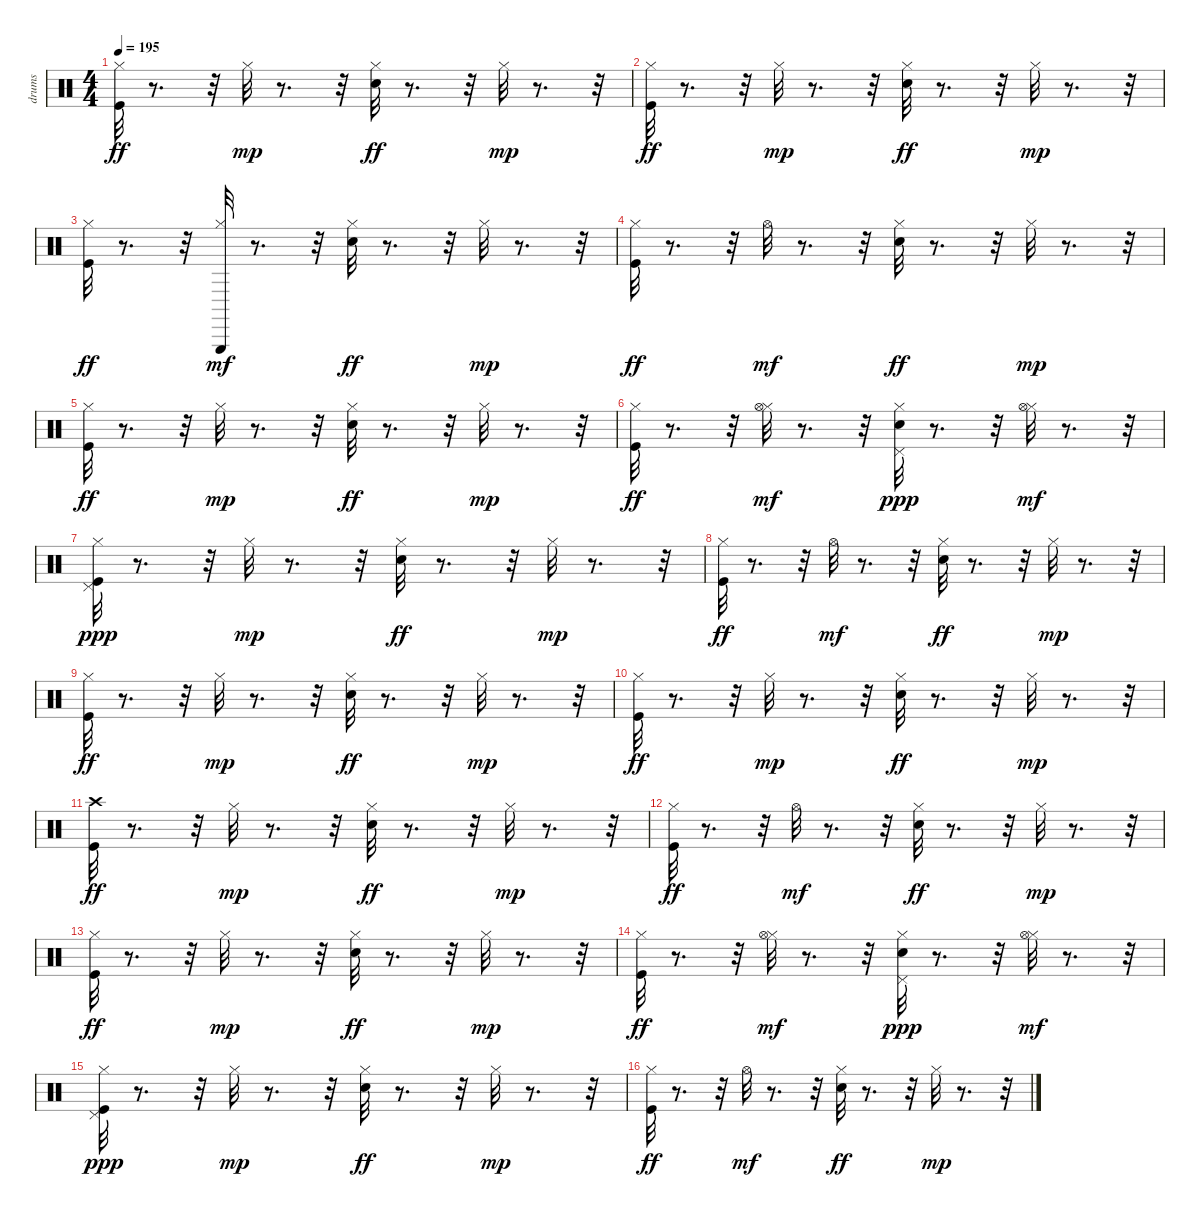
\track ("drums" "drums") {instrument percussion}
\staff {score}
\articulation defaults
\ts (4 4)
\tempo 195
\clef neutral
\ks c
("Hi-Hat (closed)" "Kick (hit)").32{dy ff} r.8{d} r.32 "Hi-Hat (closed)".32{dy mp} r.8{d} r.32 ("Snare (hit) 2" "Hi-Hat (closed)").32{dy ff} r.8{d} r.32 "Hi-Hat (closed)".32{dy mp} r.8{d} r.32 |
("Kick (hit)" "Hi-Hat (closed)").32{dy ff} r.8{d} r.32 "Hi-Hat (closed)".32{dy mp} r.8{d} r.32 ("Snare (hit) 2" "Hi-Hat (closed)").32{dy ff} r.8{d} r.32 "Hi-Hat (closed)".32{dy mp} r.8{d} r.32 |
("Hi-Hat (closed)" "Kick (hit)").32{dy ff} r.8{d} r.32 ("Hi-Hat (closed)" "Triangle (hit)").32{dy mf} r.8{d} r.32 ("Hi-Hat (closed)" "Snare (hit) 2").32{dy ff} r.8{d} r.32 "Hi-Hat (closed)".32{dy mp} r.8{d} r.32 |
("Kick (hit)" "Hi-Hat (closed)").32{dy ff} r.8{d} r.32 "Hi-Hat (open)".32{dy mf} r.8{d} r.32 ("Hi-Hat (closed)" "Snare (hit) 2").32{dy ff} r.8{d} r.32 "Hi-Hat (closed)".32{dy mp} r.8{d} r.32 |
("Hi-Hat (closed)" "Kick (hit)").32{dy ff} r.8{d} r.32 "Hi-Hat (closed)".32{dy mp} r.8{d} r.32 ("Hi-Hat (closed)" "Snare (hit) 2").32{dy ff} r.8{d} r.32 "Hi-Hat (closed)".32{dy mp} r.8{d} r.32 |
("Kick (hit)" "Hi-Hat (closed)").32{dy ff} r.8{d} r.32 ("Hi-Hat (closed)" "Hi-Hat (open)").32{dy mf} r.8{d} r.32 ("Snare (hit) 2" "Hi-Hat (closed)" "Pedal Hi-Hat (hit)").32{dy ppp} r.8{d} r.32 ("Hi-Hat (closed)" "Hi-Hat (open)").32{dy mf} r.8{d} r.32 |
("Kick (hit)" "Hi-Hat (closed)" "Pedal Hi-Hat (hit)").32{dy ppp} r.8{d} r.32 "Hi-Hat (closed)".32{dy mp} r.8{d} r.32 ("Hi-Hat (closed)" "Snare (hit) 2").32{dy ff} r.8{d} r.32 "Hi-Hat (closed)".32{dy mp} r.8{d} r.32 |
("Hi-Hat (closed)" "Kick (hit)").32{dy ff} r.8{d} r.32 "Hi-Hat (open)".32{dy mf} r.8{d} r.32 ("Hi-Hat (closed)" "Snare (hit) 2").32{dy ff} r.8{d} r.32 "Hi-Hat (closed)".32{dy mp} r.8{d} r.32 |
("Hi-Hat (closed)" "Kick (hit)").32{dy ff} r.8{d} r.32 "Hi-Hat (closed)".32{dy mp} r.8{d} r.32 ("Snare (hit) 2" "Hi-Hat (closed)").32{dy ff} r.8{d} r.32 "Hi-Hat (closed)".32{dy mp} r.8{d} r.32 |
("Hi-Hat (closed)" "Kick (hit)").32{dy ff} r.8{d} r.32 "Hi-Hat (closed)".32{dy mp} r.8{d} r.32 ("Hi-Hat (closed)" "Snare (hit) 2").32{dy ff} r.8{d} r.32 "Hi-Hat (closed)".32{dy mp} r.8{d} r.32 |
("Crash high (hit)" "Kick (hit)").32{dy ff} r.8{d} r.32 "Hi-Hat (closed)".32{dy mp} r.8{d} r.32 ("Snare (hit) 2" "Hi-Hat (closed)").32{dy ff} r.8{d} r.32 "Hi-Hat (closed)".32{dy mp} r.8{d} r.32 |
("Hi-Hat (closed)" "Kick (hit)").32{dy ff} r.8{d} r.32 "Hi-Hat (open)".32{dy mf} r.8{d} r.32 ("Hi-Hat (closed)" "Snare (hit) 2").32{dy ff} r.8{d} r.32 "Hi-Hat (closed)".32{dy mp} r.8{d} r.32 |
("Kick (hit)" "Hi-Hat (closed)").32{dy ff} r.8{d} r.32 "Hi-Hat (closed)".32{dy mp} r.8{d} r.32 ("Snare (hit) 2" "Hi-Hat (closed)").32{dy ff} r.8{d} r.32 "Hi-Hat (closed)".32{dy mp} r.8{d} r.32 |
("Kick (hit)" "Hi-Hat (closed)").32{dy ff} r.8{d} r.32 ("Hi-Hat (closed)" "Hi-Hat (open)").32{dy mf} r.8{d} r.32 ("Snare (hit) 2" "Hi-Hat (closed)" "Pedal Hi-Hat (hit)").32{dy ppp} r.8{d} r.32 ("Hi-Hat (closed)" "Hi-Hat (open)").32{dy mf} r.8{d} r.32 |
("Hi-Hat (closed)" "Kick (hit)" "Pedal Hi-Hat (hit)").32{dy ppp} r.8{d} r.32 "Hi-Hat (closed)".32{dy mp} r.8{d} r.32 ("Hi-Hat (closed)" "Snare (hit) 2").32{dy ff} r.8{d} r.32 "Hi-Hat (closed)".32{dy mp} r.8{d} r.32 |
("Kick (hit)" "Hi-Hat (closed)").32{dy ff} r.8{d} r.32 "Hi-Hat (open)".32{dy mf} r.8{d} r.32 ("Snare (hit) 2" "Hi-Hat (closed)").32{dy ff} r.8{d} r.32 "Hi-Hat (closed)".32{dy mp} r.8{d} r.32
